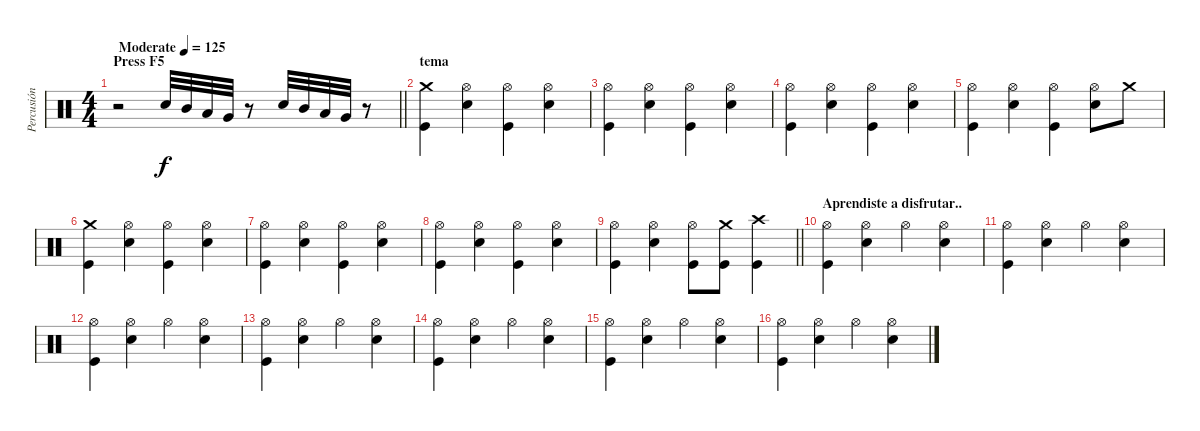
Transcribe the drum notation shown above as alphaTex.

\track ("Percusión" "Percusión") {instrument percussion}
\staff {score}
\articulation defaults
\ts (4 4)
\section ("" "Press F5")
\tempo (125 "Moderate")
\clef neutral
\barLineRight lightlight
\ks c
r.2{dy f} "Electric Snare (hit)".32 "Mid Tom (hit)".32 "Low Tom (hit)".32 "Very Low Tom (hit)".32 r.8 "Electric Snare (hit)".32 "Mid Tom (hit)".32 "Low Tom (hit)".32 "Very Low Tom (hit)".32 r.8 |
\section ("" "tema")
("Crash medium (hit)" "Kick (hit)").4 ("Hi-Hat (open)" "Electric Snare (hit)").4 ("Hi-Hat (open)" "Kick (hit)").4 ("Hi-Hat (open)" "Electric Snare (hit)").4 |
("Hi-Hat (open)" "Kick (hit)").4 ("Hi-Hat (open)" "Electric Snare (hit)").4 ("Hi-Hat (open)" "Kick (hit)").4 ("Hi-Hat (open)" "Electric Snare (hit)").4 |
("Hi-Hat (open)" "Kick (hit)").4 ("Hi-Hat (open)" "Electric Snare (hit)").4 ("Hi-Hat (open)" "Kick (hit)").4 ("Hi-Hat (open)" "Electric Snare (hit)").4 |
("Hi-Hat (open)" "Kick (hit)").4 ("Hi-Hat (open)" "Electric Snare (hit)").4 ("Hi-Hat (open)" "Kick (hit)").4 ("Hi-Hat (open)" "Electric Snare (hit)").8 "Crash medium (hit)".8 |
("Crash medium (hit)" "Kick (hit)").4 ("Hi-Hat (open)" "Electric Snare (hit)").4 ("Hi-Hat (open)" "Kick (hit)").4 ("Hi-Hat (open)" "Electric Snare (hit)").4 |
("Hi-Hat (open)" "Kick (hit)").4 ("Hi-Hat (open)" "Electric Snare (hit)").4 ("Hi-Hat (open)" "Kick (hit)").4 ("Hi-Hat (open)" "Electric Snare (hit)").4 |
("Hi-Hat (open)" "Kick (hit)").4 ("Hi-Hat (open)" "Electric Snare (hit)").4 ("Hi-Hat (open)" "Kick (hit)").4 ("Hi-Hat (open)" "Electric Snare (hit)").4 |
\barLineRight lightlight
("Hi-Hat (open)" "Kick (hit)").4 ("Hi-Hat (open)" "Electric Snare (hit)").4 ("Hi-Hat (open)" "Kick (hit)").8 ("Crash medium (hit)" "Kick (hit)").8 ("Crash high (hit)" "Kick (hit)").4 |
\section ("" "Aprendiste a disfrutar..")
("Hi-Hat (open)" "Kick (hit)").4{volume 12} ("Hi-Hat (open)" "Electric Snare (hit)").4 "Hi-Hat (open)".4 ("Hi-Hat (open)" "Electric Snare (hit)").4 |
("Hi-Hat (open)" "Kick (hit)").4 ("Hi-Hat (open)" "Electric Snare (hit)").4 "Hi-Hat (open)".4 ("Hi-Hat (open)" "Electric Snare (hit)").4 |
("Hi-Hat (open)" "Kick (hit)").4 ("Hi-Hat (open)" "Electric Snare (hit)").4 "Hi-Hat (open)".4 ("Hi-Hat (open)" "Electric Snare (hit)").4 |
("Hi-Hat (open)" "Kick (hit)").4 ("Hi-Hat (open)" "Electric Snare (hit)").4 "Hi-Hat (open)".4 ("Hi-Hat (open)" "Electric Snare (hit)").4 |
("Hi-Hat (open)" "Kick (hit)").4{volume 12} ("Hi-Hat (open)" "Electric Snare (hit)").4 "Hi-Hat (open)".4 ("Hi-Hat (open)" "Electric Snare (hit)").4 |
("Hi-Hat (open)" "Kick (hit)").4 ("Hi-Hat (open)" "Electric Snare (hit)").4 "Hi-Hat (open)".4 ("Hi-Hat (open)" "Electric Snare (hit)").4 |
("Hi-Hat (open)" "Kick (hit)").4 ("Hi-Hat (open)" "Electric Snare (hit)").4 "Hi-Hat (open)".4 ("Hi-Hat (open)" "Electric Snare (hit)").4
